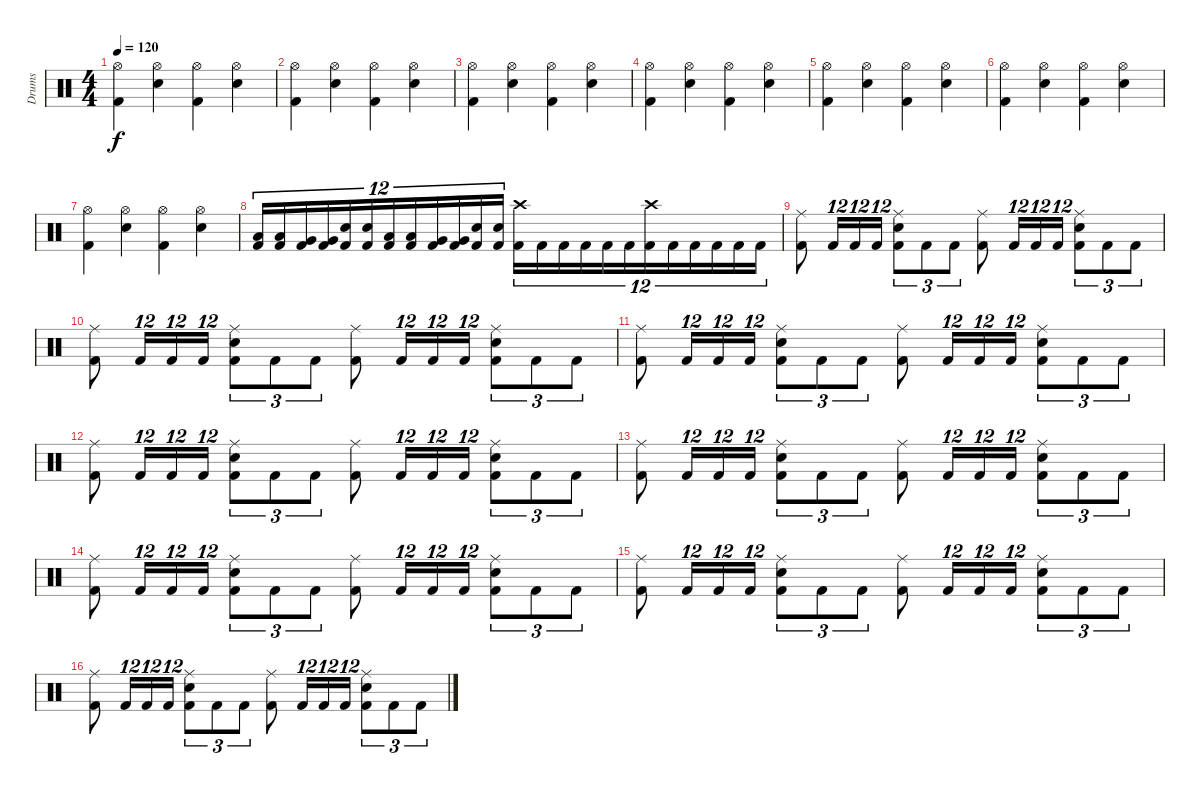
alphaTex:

\track ("Drums" "Drums") {instrument percussion}
\staff {score}
\articulation defaults
\ts (4 4)
\tempo 120
\clef neutral
\ks c
("Hi-Hat (open)" "Kick (hit) 2").4{dy f} ("Hi-Hat (open)" "Electric Snare (hit)").4 ("Hi-Hat (open)" "Kick (hit) 2").4 ("Hi-Hat (open)" "Electric Snare (hit)").4 |
("Hi-Hat (open)" "Kick (hit) 2").4 ("Hi-Hat (open)" "Electric Snare (hit)").4 ("Hi-Hat (open)" "Kick (hit) 2").4 ("Hi-Hat (open)" "Electric Snare (hit)").4 |
("Hi-Hat (open)" "Kick (hit) 2").4 ("Hi-Hat (open)" "Electric Snare (hit)").4 ("Hi-Hat (open)" "Kick (hit) 2").4 ("Hi-Hat (open)" "Electric Snare (hit)").4 |
("Hi-Hat (open)" "Kick (hit) 2").4 ("Hi-Hat (open)" "Electric Snare (hit)").4 ("Hi-Hat (open)" "Kick (hit) 2").4 ("Hi-Hat (open)" "Electric Snare (hit)").4 |
("Hi-Hat (open)" "Kick (hit) 2").4 ("Hi-Hat (open)" "Electric Snare (hit)").4 ("Hi-Hat (open)" "Kick (hit) 2").4 ("Hi-Hat (open)" "Electric Snare (hit)").4 |
("Hi-Hat (open)" "Kick (hit) 2").4 ("Hi-Hat (open)" "Electric Snare (hit)").4 ("Hi-Hat (open)" "Kick (hit) 2").4 ("Hi-Hat (open)" "Electric Snare (hit)").4 |
("Hi-Hat (open)" "Kick (hit) 2").4 ("Hi-Hat (open)" "Electric Snare (hit)").4 ("Hi-Hat (open)" "Kick (hit) 2").4 ("Hi-Hat (open)" "Electric Snare (hit)").4 |
("Low Floor Tom (hit)" "Kick (hit) 2").16{tu (12 8)} ("Low Floor Tom (hit)" "Kick (hit) 2").16{tu (12 8)} ("Very Low Tom (hit)" "Kick (hit) 2").16{tu (12 8)} ("Very Low Tom (hit)" "Kick (hit) 2").16{tu (12 8)} ("Electric Snare (hit)" "Kick (hit) 2").16{tu (12 8)} ("Electric Snare (hit)" "Kick (hit) 2").16{tu (12 8)} ("Low Floor Tom (hit)" "Kick (hit) 2").16{tu (12 8)} ("Low Floor Tom (hit)" "Kick (hit) 2").16{tu (12 8)} ("Very Low Tom (hit)" "Kick (hit) 2").16{tu (12 8)} ("Very Low Tom (hit)" "Kick (hit) 2").16{tu (12 8)} ("Electric Snare (hit)" "Kick (hit) 2").16{tu (12 8)} ("Electric Snare (hit)" "Kick (hit) 2").16{tu (12 8)} ("Crash high (hit)" "Kick (hit) 2").16{tu (12 8)} "Kick (hit) 2".16{tu (12 8)} "Kick (hit) 2".16{tu (12 8)} "Kick (hit) 2".16{tu (12 8)} "Kick (hit) 2".16{tu (12 8)} "Kick (hit) 2".16{tu (12 8)} ("Crash high (hit)" "Kick (hit) 2").16{tu (12 8)} "Kick (hit) 2".16{tu (12 8)} "Kick (hit) 2".16{tu (12 8)} "Kick (hit) 2".16{tu (12 8)} "Kick (hit) 2".16{tu (12 8)} "Kick (hit) 2".16{tu (12 8)} |
("Ride (middle)" "Kick (hit) 2").8 "Kick (hit) 2".16{tu (12 8)} "Kick (hit) 2".16{tu (12 8)} "Kick (hit) 2".16{tu (12 8)} ("Ride (middle)" "Electric Snare (hit)" "Kick (hit) 2").8{tu (3 2)} "Kick (hit) 2".8{tu (3 2)} "Kick (hit) 2".8{tu (3 2)} ("Ride (middle)" "Kick (hit) 2").8 "Kick (hit) 2".16{tu (12 8)} "Kick (hit) 2".16{tu (12 8)} "Kick (hit) 2".16{tu (12 8)} ("Ride (middle)" "Electric Snare (hit)" "Kick (hit) 2").8{tu (3 2)} "Kick (hit) 2".8{tu (3 2)} "Kick (hit) 2".8{tu (3 2)} |
("Ride (middle)" "Kick (hit) 2").8 "Kick (hit) 2".16{tu (12 8)} "Kick (hit) 2".16{tu (12 8)} "Kick (hit) 2".16{tu (12 8)} ("Ride (middle)" "Electric Snare (hit)" "Kick (hit) 2").8{tu (3 2)} "Kick (hit) 2".8{tu (3 2)} "Kick (hit) 2".8{tu (3 2)} ("Ride (middle)" "Kick (hit) 2").8 "Kick (hit) 2".16{tu (12 8)} "Kick (hit) 2".16{tu (12 8)} "Kick (hit) 2".16{tu (12 8)} ("Ride (middle)" "Electric Snare (hit)" "Kick (hit) 2").8{tu (3 2)} "Kick (hit) 2".8{tu (3 2)} "Kick (hit) 2".8{tu (3 2)} |
("Ride (middle)" "Kick (hit) 2").8 "Kick (hit) 2".16{tu (12 8)} "Kick (hit) 2".16{tu (12 8)} "Kick (hit) 2".16{tu (12 8)} ("Ride (middle)" "Electric Snare (hit)" "Kick (hit) 2").8{tu (3 2)} "Kick (hit) 2".8{tu (3 2)} "Kick (hit) 2".8{tu (3 2)} ("Ride (middle)" "Kick (hit) 2").8 "Kick (hit) 2".16{tu (12 8)} "Kick (hit) 2".16{tu (12 8)} "Kick (hit) 2".16{tu (12 8)} ("Ride (middle)" "Electric Snare (hit)" "Kick (hit) 2").8{tu (3 2)} "Kick (hit) 2".8{tu (3 2)} "Kick (hit) 2".8{tu (3 2)} |
("Ride (middle)" "Kick (hit) 2").8 "Kick (hit) 2".16{tu (12 8)} "Kick (hit) 2".16{tu (12 8)} "Kick (hit) 2".16{tu (12 8)} ("Ride (middle)" "Electric Snare (hit)" "Kick (hit) 2").8{tu (3 2)} "Kick (hit) 2".8{tu (3 2)} "Kick (hit) 2".8{tu (3 2)} ("Ride (middle)" "Kick (hit) 2").8 "Kick (hit) 2".16{tu (12 8)} "Kick (hit) 2".16{tu (12 8)} "Kick (hit) 2".16{tu (12 8)} ("Ride (middle)" "Electric Snare (hit)" "Kick (hit) 2").8{tu (3 2)} "Kick (hit) 2".8{tu (3 2)} "Kick (hit) 2".8{tu (3 2)} |
("Ride (middle)" "Kick (hit) 2").8 "Kick (hit) 2".16{tu (12 8)} "Kick (hit) 2".16{tu (12 8)} "Kick (hit) 2".16{tu (12 8)} ("Ride (middle)" "Electric Snare (hit)" "Kick (hit) 2").8{tu (3 2)} "Kick (hit) 2".8{tu (3 2)} "Kick (hit) 2".8{tu (3 2)} ("Ride (middle)" "Kick (hit) 2").8 "Kick (hit) 2".16{tu (12 8)} "Kick (hit) 2".16{tu (12 8)} "Kick (hit) 2".16{tu (12 8)} ("Ride (middle)" "Electric Snare (hit)" "Kick (hit) 2").8{tu (3 2)} "Kick (hit) 2".8{tu (3 2)} "Kick (hit) 2".8{tu (3 2)} |
("Ride (middle)" "Kick (hit) 2").8 "Kick (hit) 2".16{tu (12 8)} "Kick (hit) 2".16{tu (12 8)} "Kick (hit) 2".16{tu (12 8)} ("Ride (middle)" "Electric Snare (hit)" "Kick (hit) 2").8{tu (3 2)} "Kick (hit) 2".8{tu (3 2)} "Kick (hit) 2".8{tu (3 2)} ("Ride (middle)" "Kick (hit) 2").8 "Kick (hit) 2".16{tu (12 8)} "Kick (hit) 2".16{tu (12 8)} "Kick (hit) 2".16{tu (12 8)} ("Ride (middle)" "Electric Snare (hit)" "Kick (hit) 2").8{tu (3 2)} "Kick (hit) 2".8{tu (3 2)} "Kick (hit) 2".8{tu (3 2)} |
("Ride (middle)" "Kick (hit) 2").8 "Kick (hit) 2".16{tu (12 8)} "Kick (hit) 2".16{tu (12 8)} "Kick (hit) 2".16{tu (12 8)} ("Ride (middle)" "Electric Snare (hit)" "Kick (hit) 2").8{tu (3 2)} "Kick (hit) 2".8{tu (3 2)} "Kick (hit) 2".8{tu (3 2)} ("Ride (middle)" "Kick (hit) 2").8 "Kick (hit) 2".16{tu (12 8)} "Kick (hit) 2".16{tu (12 8)} "Kick (hit) 2".16{tu (12 8)} ("Ride (middle)" "Electric Snare (hit)" "Kick (hit) 2").8{tu (3 2)} "Kick (hit) 2".8{tu (3 2)} "Kick (hit) 2".8{tu (3 2)} |
("Ride (middle)" "Kick (hit) 2").8 "Kick (hit) 2".16{tu (12 8)} "Kick (hit) 2".16{tu (12 8)} "Kick (hit) 2".16{tu (12 8)} ("Ride (middle)" "Electric Snare (hit)" "Kick (hit) 2").8{tu (3 2)} "Kick (hit) 2".8{tu (3 2)} "Kick (hit) 2".8{tu (3 2)} ("Ride (middle)" "Kick (hit) 2").8 "Kick (hit) 2".16{tu (12 8)} "Kick (hit) 2".16{tu (12 8)} "Kick (hit) 2".16{tu (12 8)} ("Ride (middle)" "Electric Snare (hit)" "Kick (hit) 2").8{tu (3 2)} "Kick (hit) 2".8{tu (3 2)} "Kick (hit) 2".8{tu (3 2)}
